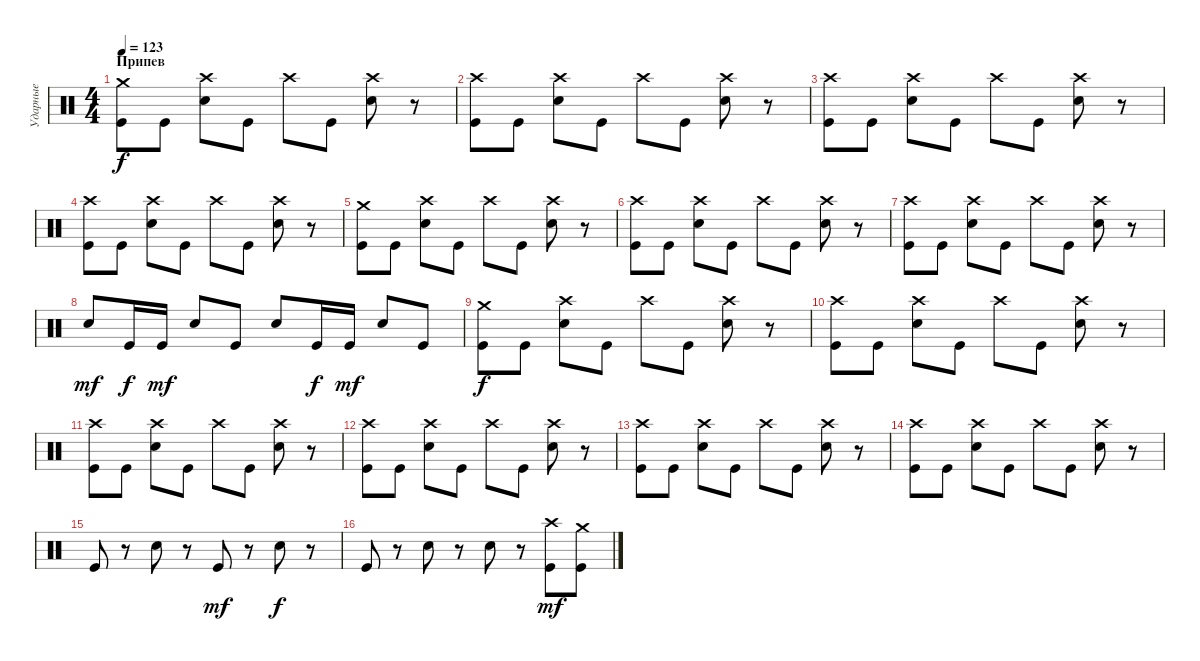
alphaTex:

\track ("Ударные" "Ударные") {instrument percussion}
\staff {score}
\articulation defaults
\ts (4 4)
\section ("" "Припев")
\tempo 123
\clef neutral
\ks c
("Crash medium (hit)" "Kick (hit)").8{dy f} "Kick (hit)".8 ("Crash high (hit)" "Electric Snare (hit)").8 "Kick (hit)".8 "Crash high (hit)".8 "Kick (hit)".8 ("Crash high (hit)" "Electric Snare (hit)").8 r.8 |
("Crash high (hit)" "Kick (hit)").8 "Kick (hit)".8 ("Crash high (hit)" "Electric Snare (hit)").8 "Kick (hit)".8 "Crash high (hit)".8 "Kick (hit)".8 ("Crash high (hit)" "Electric Snare (hit)").8 r.8 |
("Crash high (hit)" "Kick (hit)").8 "Kick (hit)".8 ("Crash high (hit)" "Electric Snare (hit)").8 "Kick (hit)".8 "Crash high (hit)".8 "Kick (hit)".8 ("Crash high (hit)" "Electric Snare (hit)").8 r.8 |
("Crash high (hit)" "Kick (hit)").8 "Kick (hit)".8 ("Crash high (hit)" "Electric Snare (hit)").8 "Kick (hit)".8 "Crash high (hit)".8 "Kick (hit)".8 ("Crash high (hit)" "Electric Snare (hit)").8 r.8 |
("Crash medium (hit)" "Kick (hit)").8 "Kick (hit)".8 ("Crash high (hit)" "Electric Snare (hit)").8 "Kick (hit)".8 "Crash high (hit)".8 "Kick (hit)".8 ("Crash high (hit)" "Electric Snare (hit)").8 r.8 |
("Crash high (hit)" "Kick (hit)").8 "Kick (hit)".8 ("Crash high (hit)" "Electric Snare (hit)").8 "Kick (hit)".8 "Crash high (hit)".8 "Kick (hit)".8 ("Crash high (hit)" "Electric Snare (hit)").8 r.8 |
("Crash high (hit)" "Kick (hit)").8 "Kick (hit)".8 ("Crash high (hit)" "Electric Snare (hit)").8 "Kick (hit)".8 "Crash high (hit)".8 "Kick (hit)".8 ("Crash high (hit)" "Electric Snare (hit)").8 r.8 |
"Electric Snare (hit)".8{dy mf} "Kick (hit)".16{dy f} "Kick (hit)".16{dy mf} "Electric Snare (hit)".8 "Kick (hit)".8 "Electric Snare (hit)".8 "Kick (hit)".16{dy f} "Kick (hit)".16{dy mf} "Electric Snare (hit)".8 "Kick (hit)".8 |
("Crash medium (hit)" "Kick (hit)").8{dy f} "Kick (hit)".8 ("Crash high (hit)" "Electric Snare (hit)").8 "Kick (hit)".8 "Crash high (hit)".8 "Kick (hit)".8 ("Crash high (hit)" "Electric Snare (hit)").8 r.8 |
("Crash high (hit)" "Kick (hit)").8 "Kick (hit)".8 ("Crash high (hit)" "Electric Snare (hit)").8 "Kick (hit)".8 "Crash high (hit)".8 "Kick (hit)".8 ("Crash high (hit)" "Electric Snare (hit)").8 r.8 |
("Crash high (hit)" "Kick (hit)").8 "Kick (hit)".8 ("Crash high (hit)" "Electric Snare (hit)").8 "Kick (hit)".8 "Crash high (hit)".8 "Kick (hit)".8 ("Crash high (hit)" "Electric Snare (hit)").8 r.8 |
("Crash high (hit)" "Kick (hit)").8 "Kick (hit)".8 ("Crash high (hit)" "Electric Snare (hit)").8 "Kick (hit)".8 "Crash high (hit)".8 "Kick (hit)".8 ("Crash high (hit)" "Electric Snare (hit)").8 r.8 |
("Crash high (hit)" "Kick (hit)").8 "Kick (hit)".8 ("Crash high (hit)" "Electric Snare (hit)").8 "Kick (hit)".8 "Crash high (hit)".8 "Kick (hit)".8 ("Crash high (hit)" "Electric Snare (hit)").8 r.8 |
("Crash high (hit)" "Kick (hit)").8 "Kick (hit)".8 ("Crash high (hit)" "Electric Snare (hit)").8 "Kick (hit)".8 "Crash high (hit)".8 "Kick (hit)".8 ("Crash high (hit)" "Electric Snare (hit)").8 r.8 |
"Kick (hit)".8 r.8 "Electric Snare (hit)".8 r.8 "Kick (hit)".8{dy mf} r.8 "Electric Snare (hit)".8{dy f} r.8 |
"Kick (hit)".8 r.8 "Electric Snare (hit)".8 r.8 "Electric Snare (hit)".8 r.8 ("Crash high (hit)" "Kick (hit)").8{dy mf} ("Crash medium (hit)" "Kick (hit)").8
